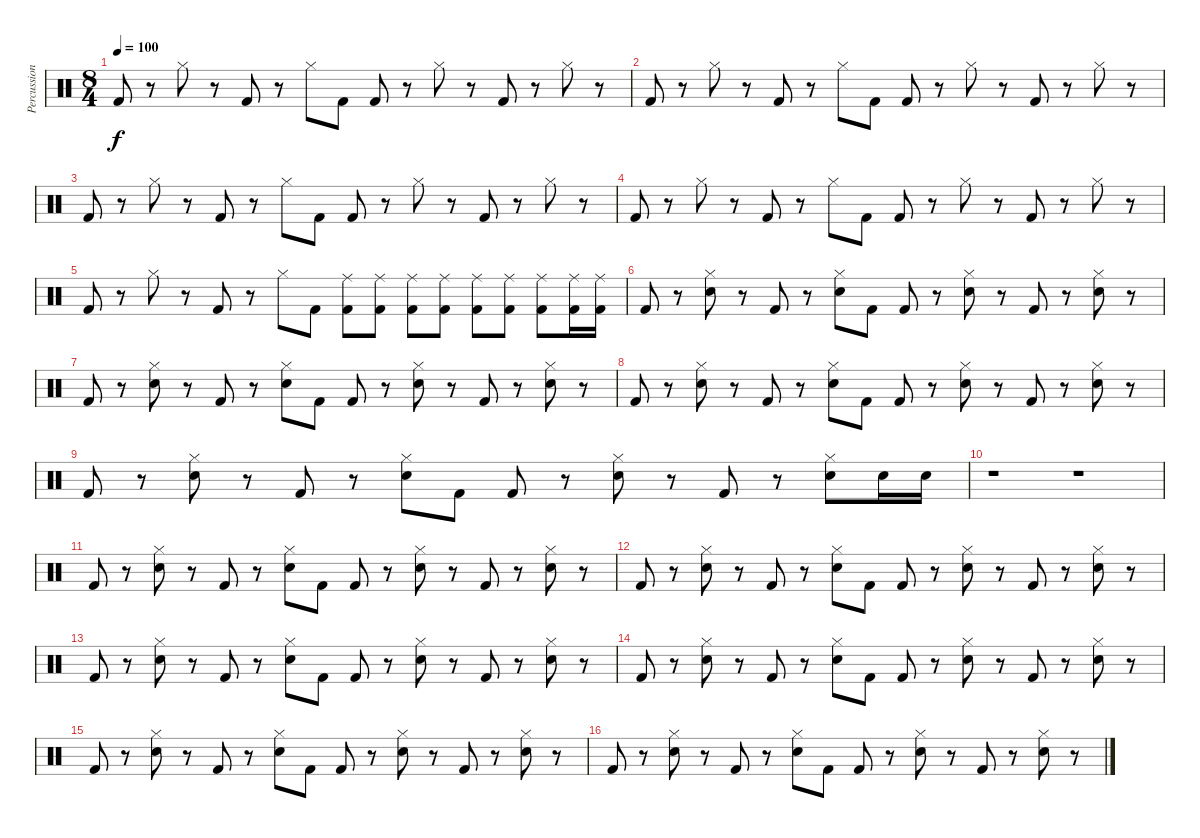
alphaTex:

\track ("Percussion" "Percussion") {instrument percussion}
\staff {score}
\articulation defaults
\ts (8 4)
\tempo 100
\clef neutral
\ks c "Kick (hit) 2".8{dy f}
r.8 "Hi-Hat (closed)".8 r.8 "Kick (hit) 2".8 r.8 "Hi-Hat (closed)".8 "Kick (hit) 2".8 "Kick (hit) 2".8 r.8 "Hi-Hat (closed)".8 r.8 "Kick (hit) 2".8 r.8 "Hi-Hat (closed)".8 r.8 |
"Kick (hit) 2".8 r.8 "Hi-Hat (closed)".8 r.8 "Kick (hit) 2".8 r.8 "Hi-Hat (closed)".8 "Kick (hit) 2".8 "Kick (hit) 2".8 r.8 "Hi-Hat (closed)".8 r.8 "Kick (hit) 2".8 r.8 "Hi-Hat (closed)".8 r.8 |
"Kick (hit) 2".8 r.8 "Hi-Hat (closed)".8 r.8 "Kick (hit) 2".8 r.8 "Hi-Hat (closed)".8 "Kick (hit) 2".8 "Kick (hit) 2".8 r.8 "Hi-Hat (closed)".8 r.8 "Kick (hit) 2".8 r.8 "Hi-Hat (closed)".8 r.8 |
"Kick (hit) 2".8 r.8 "Hi-Hat (closed)".8 r.8 "Kick (hit) 2".8 r.8 "Hi-Hat (closed)".8 "Kick (hit) 2".8 "Kick (hit) 2".8 r.8 "Hi-Hat (closed)".8 r.8 "Kick (hit) 2".8 r.8 "Hi-Hat (closed)".8 r.8 |
"Kick (hit) 2".8 r.8 "Hi-Hat (closed)".8 r.8 "Kick (hit) 2".8 r.8 "Hi-Hat (closed)".8 "Kick (hit) 2".8 ("Ride (middle)" "Kick (hit) 2").8 ("Ride (middle)" "Kick (hit) 2").8 ("Ride (middle)" "Kick (hit) 2").8 ("Ride (middle)" "Kick (hit) 2").8 ("Ride (middle)" "Kick (hit) 2").8 ("Ride (middle)" "Kick (hit) 2").8 ("Ride (middle)" "Kick (hit) 2").8 ("Ride (middle)" "Kick (hit) 2").16 ("Ride (middle)" "Kick (hit) 2").16 |
"Kick (hit) 2".8 r.8 ("Hi-Hat (closed)" "Snare (hit) 2").8 r.8 "Kick (hit) 2".8 r.8 ("Hi-Hat (closed)" "Snare (hit) 2").8 "Kick (hit) 2".8 "Kick (hit) 2".8 r.8 ("Hi-Hat (closed)" "Snare (hit) 2").8 r.8 "Kick (hit) 2".8 r.8 ("Hi-Hat (closed)" "Snare (hit) 2").8 r.8 |
"Kick (hit) 2".8 r.8 ("Hi-Hat (closed)" "Snare (hit) 2").8 r.8 "Kick (hit) 2".8 r.8 ("Hi-Hat (closed)" "Snare (hit) 2").8 "Kick (hit) 2".8 "Kick (hit) 2".8 r.8 ("Hi-Hat (closed)" "Snare (hit) 2").8 r.8 "Kick (hit) 2".8 r.8 ("Hi-Hat (closed)" "Snare (hit) 2").8 r.8 |
"Kick (hit) 2".8 r.8 ("Hi-Hat (closed)" "Snare (hit) 2").8 r.8 "Kick (hit) 2".8 r.8 ("Hi-Hat (closed)" "Snare (hit) 2").8 "Kick (hit) 2".8 "Kick (hit) 2".8 r.8 ("Hi-Hat (closed)" "Snare (hit) 2").8 r.8 "Kick (hit) 2".8 r.8 ("Hi-Hat (closed)" "Snare (hit) 2").8 r.8 |
"Kick (hit) 2".8 r.8 ("Hi-Hat (closed)" "Snare (hit) 2").8 r.8 "Kick (hit) 2".8 r.8 ("Hi-Hat (closed)" "Snare (hit) 2").8 "Kick (hit) 2".8 "Kick (hit) 2".8 r.8 ("Hi-Hat (closed)" "Snare (hit) 2").8 r.8 "Kick (hit) 2".8 r.8 ("Hi-Hat (closed)" "Snare (hit) 2").8 "Snare (hit) 2".16 "Snare (hit) 2".16 |
r.1 r.1 |
"Kick (hit) 2".8 r.8 ("Hi-Hat (closed)" "Snare (hit) 2").8 r.8 "Kick (hit) 2".8 r.8 ("Hi-Hat (closed)" "Snare (hit) 2").8 "Kick (hit) 2".8 "Kick (hit) 2".8 r.8 ("Hi-Hat (closed)" "Snare (hit) 2").8 r.8 "Kick (hit) 2".8 r.8 ("Hi-Hat (closed)" "Snare (hit) 2").8 r.8 |
"Kick (hit) 2".8 r.8 ("Hi-Hat (closed)" "Snare (hit) 2").8 r.8 "Kick (hit) 2".8 r.8 ("Hi-Hat (closed)" "Snare (hit) 2").8 "Kick (hit) 2".8 "Kick (hit) 2".8 r.8 ("Hi-Hat (closed)" "Snare (hit) 2").8 r.8 "Kick (hit) 2".8 r.8 ("Hi-Hat (closed)" "Snare (hit) 2").8 r.8 |
"Kick (hit) 2".8 r.8 ("Hi-Hat (closed)" "Snare (hit) 2").8 r.8 "Kick (hit) 2".8 r.8 ("Hi-Hat (closed)" "Snare (hit) 2").8 "Kick (hit) 2".8 "Kick (hit) 2".8 r.8 ("Hi-Hat (closed)" "Snare (hit) 2").8 r.8 "Kick (hit) 2".8 r.8 ("Hi-Hat (closed)" "Snare (hit) 2").8 r.8 |
"Kick (hit) 2".8 r.8 ("Hi-Hat (closed)" "Snare (hit) 2").8 r.8 "Kick (hit) 2".8 r.8 ("Hi-Hat (closed)" "Snare (hit) 2").8 "Kick (hit) 2".8 "Kick (hit) 2".8 r.8 ("Hi-Hat (closed)" "Snare (hit) 2").8 r.8 "Kick (hit) 2".8 r.8 ("Hi-Hat (closed)" "Snare (hit) 2").8 r.8 |
"Kick (hit) 2".8 r.8 ("Hi-Hat (closed)" "Snare (hit) 2").8 r.8 "Kick (hit) 2".8 r.8 ("Hi-Hat (closed)" "Snare (hit) 2").8 "Kick (hit) 2".8 "Kick (hit) 2".8 r.8 ("Hi-Hat (closed)" "Snare (hit) 2").8 r.8 "Kick (hit) 2".8 r.8 ("Hi-Hat (closed)" "Snare (hit) 2").8 r.8 |
"Kick (hit) 2".8 r.8 ("Hi-Hat (closed)" "Snare (hit) 2").8 r.8 "Kick (hit) 2".8 r.8 ("Hi-Hat (closed)" "Snare (hit) 2").8 "Kick (hit) 2".8 "Kick (hit) 2".8 r.8 ("Hi-Hat (closed)" "Snare (hit) 2").8 r.8 "Kick (hit) 2".8 r.8 ("Hi-Hat (closed)" "Snare (hit) 2").8 r.8
